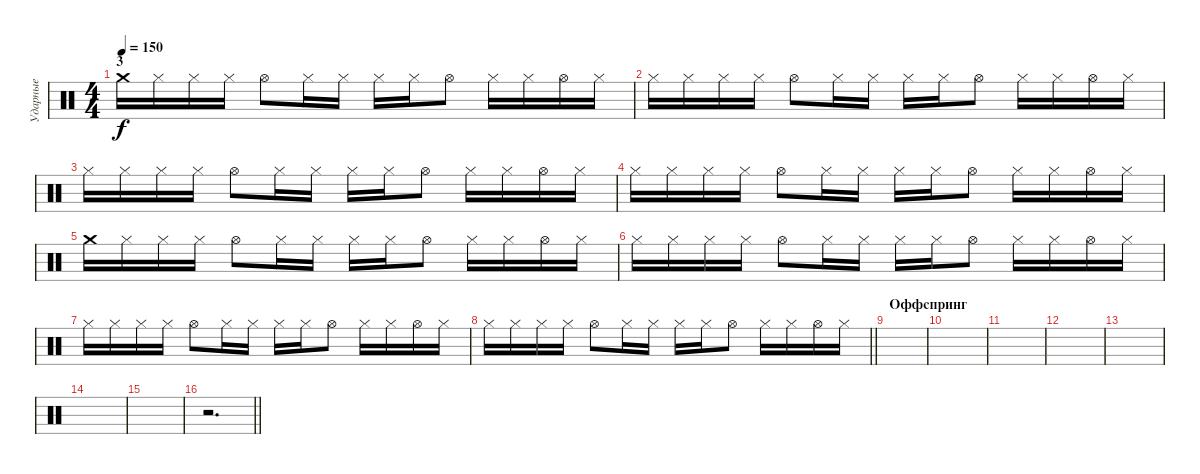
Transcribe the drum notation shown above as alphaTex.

\track ("Ударные" "Ударные") {instrument percussion}
\staff {score}
\articulation defaults
\ts (4 4)
\section ("" "3")
\tempo 150
\clef neutral
\ks c "Crash medium (hit)".16{dy f} "Hi-Hat (closed)".16 "Hi-Hat (closed)".16 "Hi-Hat (closed)".16 "Hi-Hat (open)".8 "Hi-Hat (closed)".16 "Hi-Hat (closed)".16 "Hi-Hat (closed)".16 "Hi-Hat (closed)".16 "Hi-Hat (open)".8 "Hi-Hat (closed)".16 "Hi-Hat (closed)".16 "Hi-Hat (open)".16 "Hi-Hat (closed)".16
|
"Hi-Hat (closed)".16 "Hi-Hat (closed)".16 "Hi-Hat (closed)".16 "Hi-Hat (closed)".16 "Hi-Hat (open)".8 "Hi-Hat (closed)".16 "Hi-Hat (closed)".16 "Hi-Hat (closed)".16 "Hi-Hat (closed)".16 "Hi-Hat (open)".8 "Hi-Hat (closed)".16 "Hi-Hat (closed)".16 "Hi-Hat (open)".16 "Hi-Hat (closed)".16 |
"Hi-Hat (closed)".16 "Hi-Hat (closed)".16 "Hi-Hat (closed)".16 "Hi-Hat (closed)".16 "Hi-Hat (open)".8 "Hi-Hat (closed)".16 "Hi-Hat (closed)".16 "Hi-Hat (closed)".16 "Hi-Hat (closed)".16 "Hi-Hat (open)".8 "Hi-Hat (closed)".16 "Hi-Hat (closed)".16 "Hi-Hat (open)".16 "Hi-Hat (closed)".16 |
"Hi-Hat (closed)".16 "Hi-Hat (closed)".16 "Hi-Hat (closed)".16 "Hi-Hat (closed)".16 "Hi-Hat (open)".8 "Hi-Hat (closed)".16 "Hi-Hat (closed)".16 "Hi-Hat (closed)".16 "Hi-Hat (closed)".16 "Hi-Hat (open)".8 "Hi-Hat (closed)".16 "Hi-Hat (closed)".16 "Hi-Hat (open)".16 "Hi-Hat (closed)".16 |
"Crash medium (hit)".16 "Hi-Hat (closed)".16 "Hi-Hat (closed)".16 "Hi-Hat (closed)".16 "Hi-Hat (open)".8 "Hi-Hat (closed)".16 "Hi-Hat (closed)".16 "Hi-Hat (closed)".16 "Hi-Hat (closed)".16 "Hi-Hat (open)".8 "Hi-Hat (closed)".16 "Hi-Hat (closed)".16 "Hi-Hat (open)".16 "Hi-Hat (closed)".16 |
"Hi-Hat (closed)".16 "Hi-Hat (closed)".16 "Hi-Hat (closed)".16 "Hi-Hat (closed)".16 "Hi-Hat (open)".8 "Hi-Hat (closed)".16 "Hi-Hat (closed)".16 "Hi-Hat (closed)".16 "Hi-Hat (closed)".16 "Hi-Hat (open)".8 "Hi-Hat (closed)".16 "Hi-Hat (closed)".16 "Hi-Hat (open)".16 "Hi-Hat (closed)".16 |
"Hi-Hat (closed)".16 "Hi-Hat (closed)".16 "Hi-Hat (closed)".16 "Hi-Hat (closed)".16 "Hi-Hat (open)".8 "Hi-Hat (closed)".16 "Hi-Hat (closed)".16 "Hi-Hat (closed)".16 "Hi-Hat (closed)".16 "Hi-Hat (open)".8 "Hi-Hat (closed)".16 "Hi-Hat (closed)".16 "Hi-Hat (open)".16 "Hi-Hat (closed)".16 |
\barLineRight lightlight "Hi-Hat (closed)".16 "Hi-Hat (closed)".16 "Hi-Hat (closed)".16 "Hi-Hat (closed)".16 "Hi-Hat (open)".8 "Hi-Hat (closed)".16 "Hi-Hat (closed)".16 "Hi-Hat (closed)".16 "Hi-Hat (closed)".16 "Hi-Hat (open)".8 "Hi-Hat (closed)".16 "Hi-Hat (closed)".16 "Hi-Hat (open)".16 "Hi-Hat (closed)".16
|
\section ("" "Оффспринг")
|
|
|
|
|
|
|
\barLineRight lightlight
r.2{d}
